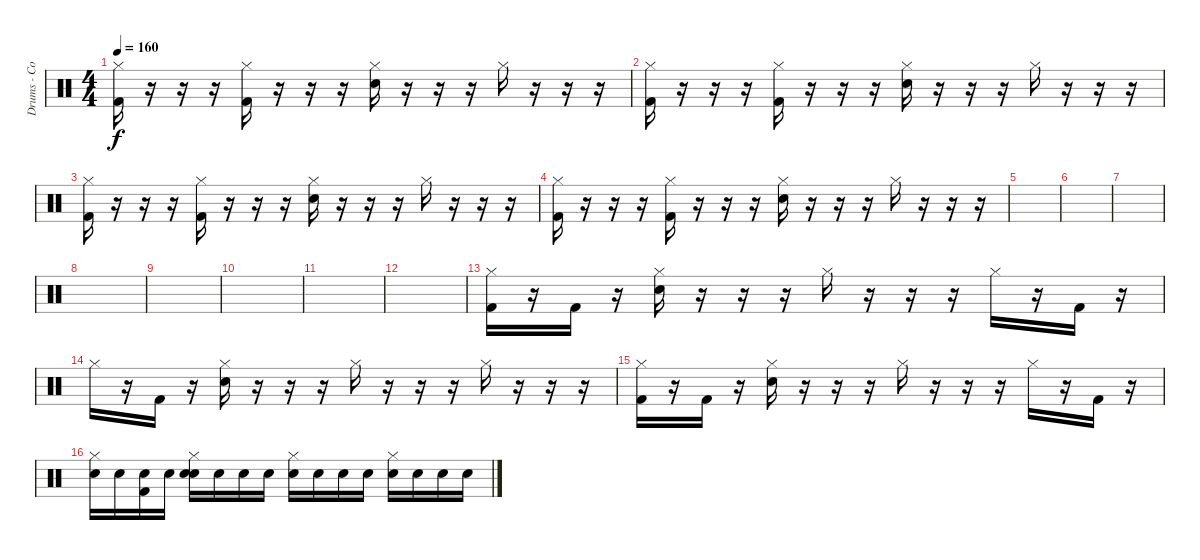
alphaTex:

\track ("Drums - Colby" "Drums - Co") {instrument percussion}
\staff {score}
\articulation defaults
\ts (4 4)
\tempo 160
\clef neutral
\ks c
("Kick (hit) 2" "Hi-Hat (closed)").16{dy f} r.16 r.16 r.16 ("Kick (hit) 2" "Hi-Hat (closed)").16 r.16 r.16 r.16 ("Snare (hit) 2" "Hi-Hat (closed)").16 r.16 r.16 r.16 "Hi-Hat (closed)".16 r.16 r.16 r.16 |
("Kick (hit) 2" "Hi-Hat (closed)").16 r.16 r.16 r.16 ("Kick (hit) 2" "Hi-Hat (closed)").16 r.16 r.16 r.16 ("Snare (hit) 2" "Hi-Hat (closed)").16 r.16 r.16 r.16 "Hi-Hat (closed)".16 r.16 r.16 r.16 |
("Kick (hit) 2" "Hi-Hat (closed)").16 r.16 r.16 r.16 ("Kick (hit) 2" "Hi-Hat (closed)").16 r.16 r.16 r.16 ("Snare (hit) 2" "Hi-Hat (closed)").16 r.16 r.16 r.16 "Hi-Hat (closed)".16 r.16 r.16 r.16 |
("Kick (hit) 2" "Hi-Hat (closed)").16 r.16 r.16 r.16 ("Kick (hit) 2" "Hi-Hat (closed)").16 r.16 r.16 r.16 ("Snare (hit) 2" "Hi-Hat (closed)").16 r.16 r.16 r.16 "Hi-Hat (closed)".16 r.16 r.16 r.16 |
|
|
|
|
|
|
|
|
("Kick (hit) 2" "Hi-Hat (closed)").16 r.16 "Kick (hit) 2".16 r.16 ("Snare (hit) 2" "Hi-Hat (closed)").16 r.16 r.16 r.16 "Hi-Hat (closed)".16 r.16 r.16 r.16 "Hi-Hat (closed)".16 r.16 "Kick (hit) 2".16 r.16 |
"Hi-Hat (closed)".16 r.16 "Kick (hit) 2".16 r.16 ("Snare (hit) 2" "Hi-Hat (closed)").16 r.16 r.16 r.16 "Hi-Hat (closed)".16 r.16 r.16 r.16 "Hi-Hat (closed)".16 r.16 r.16 r.16 |
("Kick (hit) 2" "Hi-Hat (closed)").16 r.16 "Kick (hit) 2".16 r.16 ("Snare (hit) 2" "Hi-Hat (closed)").16 r.16 r.16 r.16 "Hi-Hat (closed)".16 r.16 r.16 r.16 "Hi-Hat (closed)".16 r.16 "Kick (hit) 2".16 r.16 |
("Snare (hit)" "Hi-Hat (closed)").16 "Snare (hit)".16 ("Snare (hit)" "Kick (hit) 2").16 "Snare (hit)".16 ("Snare (hit)" "Snare (hit) 2" "Hi-Hat (closed)").16 "Snare (hit)".16 "Snare (hit)".16 "Snare (hit)".16 ("Snare (hit)" "Hi-Hat (closed)").16 "Snare (hit)".16 "Snare (hit)".16 "Snare (hit)".16 ("Snare (hit)" "Hi-Hat (closed)").16 "Snare (hit)".16 "Snare (hit)".16 "Snare (hit)".16
